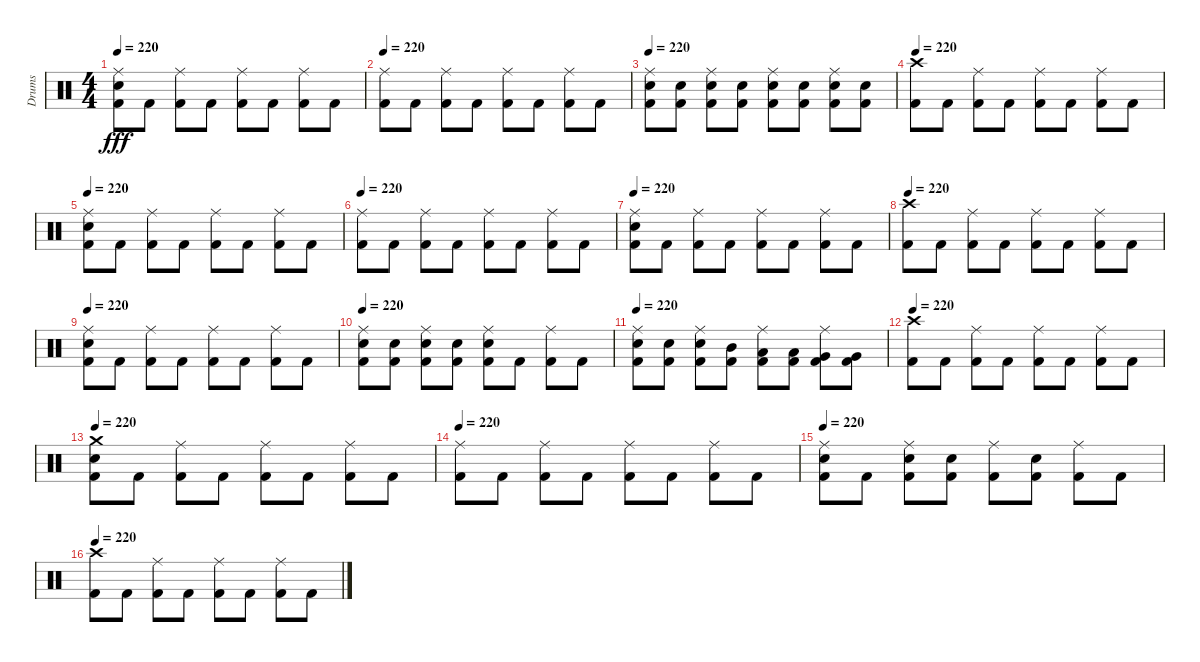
\track ("Drums" "Drums") {instrument percussion}
\staff {score}
\articulation defaults
\ts (4 4)
\tempo 220
\clef neutral
\ks c
("Ride (middle)" "Snare (hit) 2" "Kick (hit) 2").8{dy fff} "Kick (hit) 2".8 ("Ride (middle)" "Kick (hit) 2").8 "Kick (hit) 2".8 ("Ride (middle)" "Kick (hit) 2").8 "Kick (hit) 2".8 ("Ride (middle)" "Kick (hit) 2").8 "Kick (hit) 2".8 |
\tempo 220
("Ride (middle)" "Kick (hit) 2").8 "Kick (hit) 2".8 ("Ride (middle)" "Kick (hit) 2").8 "Kick (hit) 2".8 ("Ride (middle)" "Kick (hit) 2").8 "Kick (hit) 2".8 ("Ride (middle)" "Kick (hit) 2").8 "Kick (hit) 2".8 |
\tempo 220
("Ride (middle)" "Snare (hit) 2" "Kick (hit) 2").8 ("Snare (hit) 2" "Kick (hit) 2").8 ("Ride (middle)" "Snare (hit) 2" "Kick (hit) 2").8 ("Snare (hit) 2" "Kick (hit) 2").8 ("Ride (middle)" "Snare (hit) 2" "Kick (hit) 2").8 ("Snare (hit) 2" "Kick (hit) 2").8 ("Ride (middle)" "Snare (hit) 2" "Kick (hit) 2").8 ("Snare (hit) 2" "Kick (hit) 2").8 |
\tempo 220
("Crash high (hit)" "Kick (hit) 2").8 "Kick (hit) 2".8 ("Ride (middle)" "Kick (hit) 2").8 "Kick (hit) 2".8 ("Ride (middle)" "Kick (hit) 2").8 "Kick (hit) 2".8 ("Ride (middle)" "Kick (hit) 2").8 "Kick (hit) 2".8 |
\tempo 220
("Ride (middle)" "Snare (hit) 2" "Kick (hit) 2").8 "Kick (hit) 2".8 ("Ride (middle)" "Kick (hit) 2").8 "Kick (hit) 2".8 ("Ride (middle)" "Kick (hit) 2").8 "Kick (hit) 2".8 ("Ride (middle)" "Kick (hit) 2").8 "Kick (hit) 2".8 |
\tempo 220
("Ride (middle)" "Kick (hit) 2").8 "Kick (hit) 2".8 ("Ride (middle)" "Kick (hit) 2").8 "Kick (hit) 2".8 ("Ride (middle)" "Kick (hit) 2").8 "Kick (hit) 2".8 ("Ride (middle)" "Kick (hit) 2").8 "Kick (hit) 2".8 |
\tempo 220
("Ride (middle)" "Snare (hit) 2" "Kick (hit) 2").8 "Kick (hit) 2".8 ("Ride (middle)" "Kick (hit) 2").8 "Kick (hit) 2".8 ("Ride (middle)" "Kick (hit) 2").8 "Kick (hit) 2".8 ("Ride (middle)" "Kick (hit) 2").8 "Kick (hit) 2".8 |
\tempo 220
("Crash high (hit)" "Kick (hit) 2").8 "Kick (hit) 2".8 ("Ride (middle)" "Kick (hit) 2").8 "Kick (hit) 2".8 ("Ride (middle)" "Kick (hit) 2").8 "Kick (hit) 2".8 ("Ride (middle)" "Kick (hit) 2").8 "Kick (hit) 2".8 |
\tempo 220
("Ride (middle)" "Snare (hit) 2" "Kick (hit) 2").8 "Kick (hit) 2".8 ("Ride (middle)" "Kick (hit) 2").8 "Kick (hit) 2".8 ("Ride (middle)" "Kick (hit) 2").8 "Kick (hit) 2".8 ("Ride (middle)" "Kick (hit) 2").8 "Kick (hit) 2".8 |
\tempo 220
("Ride (middle)" "Snare (hit) 2" "Kick (hit) 2").8 ("Snare (hit) 2" "Kick (hit) 2").8 ("Ride (middle)" "Snare (hit) 2" "Kick (hit) 2").8 ("Snare (hit) 2" "Kick (hit) 2").8 ("Ride (middle)" "Snare (hit) 2" "Kick (hit) 2").8 "Kick (hit) 2".8 ("Ride (middle)" "Kick (hit) 2").8 "Kick (hit) 2".8 |
\tempo 220
("Ride (middle)" "Snare (hit) 2" "Kick (hit) 2").8 ("Snare (hit) 2" "Kick (hit) 2").8 ("Ride (middle)" "Snare (hit) 2" "Kick (hit) 2").8 ("Mid Tom (hit)" "Kick (hit) 2").8 ("Ride (middle)" "Low Tom (hit)" "Kick (hit) 2").8 ("Low Tom (hit)" "Kick (hit) 2").8 ("Ride (middle)" "Very Low Tom (hit)" "Kick (hit) 2").8 ("Very Low Tom (hit)" "Kick (hit) 2").8 |
\tempo 220
("Crash high (hit)" "Kick (hit) 2").8 "Kick (hit) 2".8 ("Ride (middle)" "Kick (hit) 2").8 "Kick (hit) 2".8 ("Ride (middle)" "Kick (hit) 2").8 "Kick (hit) 2".8 ("Ride (middle)" "Kick (hit) 2").8 "Kick (hit) 2".8 |
\tempo 220
("Crash medium (hit)" "Snare (hit) 2" "Kick (hit) 2").8 "Kick (hit) 2".8 ("Ride (middle)" "Kick (hit) 2").8 "Kick (hit) 2".8 ("Ride (middle)" "Kick (hit) 2").8 "Kick (hit) 2".8 ("Ride (middle)" "Kick (hit) 2").8 "Kick (hit) 2".8 |
\tempo 220
("Ride (middle)" "Kick (hit) 2").8 "Kick (hit) 2".8 ("Ride (middle)" "Kick (hit) 2").8 "Kick (hit) 2".8 ("Ride (middle)" "Kick (hit) 2").8 "Kick (hit) 2".8 ("Ride (middle)" "Kick (hit) 2").8 "Kick (hit) 2".8 |
\tempo 220
("Ride (middle)" "Snare (hit) 2" "Kick (hit) 2").8 "Kick (hit) 2".8 ("Ride (middle)" "Snare (hit) 2" "Kick (hit) 2").8 ("Snare (hit) 2" "Kick (hit) 2").8 ("Ride (middle)" "Kick (hit) 2").8 ("Snare (hit) 2" "Kick (hit) 2").8 ("Ride (middle)" "Kick (hit) 2").8 "Kick (hit) 2".8 |
\tempo 220
("Crash high (hit)" "Kick (hit) 2").8 "Kick (hit) 2".8 ("Ride (middle)" "Kick (hit) 2").8 "Kick (hit) 2".8 ("Ride (middle)" "Kick (hit) 2").8 "Kick (hit) 2".8 ("Ride (middle)" "Kick (hit) 2").8 "Kick (hit) 2".8
